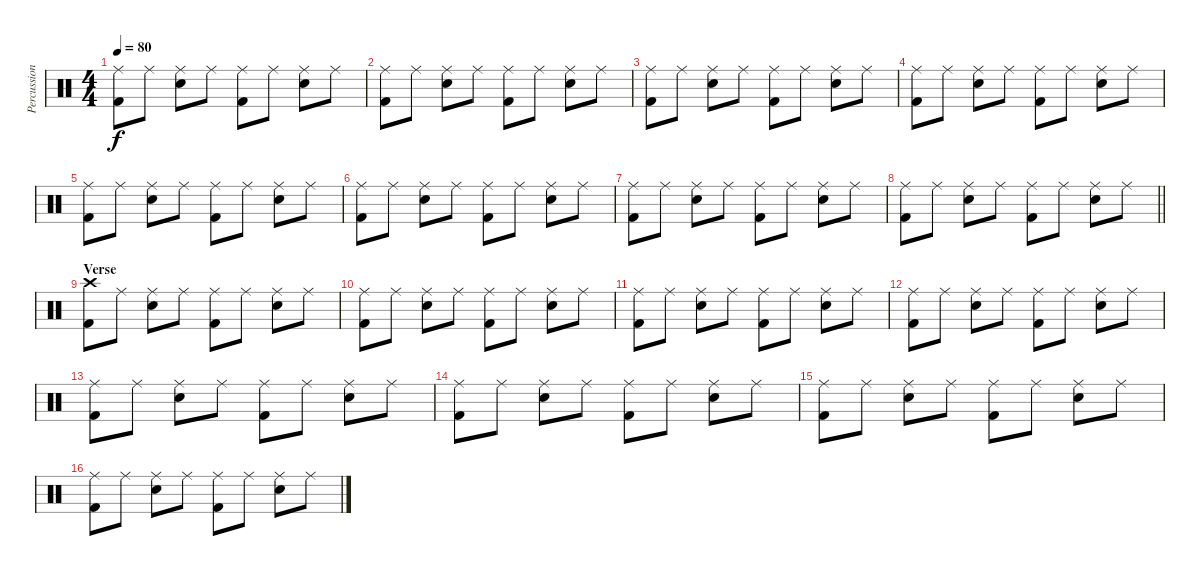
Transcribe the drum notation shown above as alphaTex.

\track ("Percussion" "Percussion") {instrument percussion}
\staff {score}
\articulation defaults
\ts (4 4)
\tempo 80
\clef neutral
\ks c
("Ride (middle)" "Kick (hit) 2").8{dy f} "Ride (middle)".8 ("Ride (middle)" "Electric Snare (hit)").8 "Ride (middle)".8 ("Ride (middle)" "Kick (hit) 2").8 "Ride (middle)".8 ("Ride (middle)" "Electric Snare (hit)").8 "Ride (middle)".8 |
("Ride (middle)" "Kick (hit) 2").8 "Ride (middle)".8 ("Ride (middle)" "Electric Snare (hit)").8 "Ride (middle)".8 ("Ride (middle)" "Kick (hit) 2").8 "Ride (middle)".8 ("Ride (middle)" "Electric Snare (hit)").8 "Ride (middle)".8 |
("Ride (middle)" "Kick (hit) 2").8 "Ride (middle)".8 ("Ride (middle)" "Electric Snare (hit)").8 "Ride (middle)".8 ("Ride (middle)" "Kick (hit) 2").8 "Ride (middle)".8 ("Ride (middle)" "Electric Snare (hit)").8 "Ride (middle)".8 |
("Ride (middle)" "Kick (hit) 2").8 "Ride (middle)".8 ("Ride (middle)" "Electric Snare (hit)").8 "Ride (middle)".8 ("Ride (middle)" "Kick (hit) 2").8 "Ride (middle)".8 ("Ride (middle)" "Electric Snare (hit)").8 "Ride (middle)".8 |
("Ride (middle)" "Kick (hit) 2").8 "Ride (middle)".8 ("Ride (middle)" "Electric Snare (hit)").8 "Ride (middle)".8 ("Ride (middle)" "Kick (hit) 2").8 "Ride (middle)".8 ("Ride (middle)" "Electric Snare (hit)").8 "Ride (middle)".8 |
("Ride (middle)" "Kick (hit) 2").8 "Ride (middle)".8 ("Ride (middle)" "Electric Snare (hit)").8 "Ride (middle)".8 ("Ride (middle)" "Kick (hit) 2").8 "Ride (middle)".8 ("Ride (middle)" "Electric Snare (hit)").8 "Ride (middle)".8 |
("Ride (middle)" "Kick (hit) 2").8 "Ride (middle)".8 ("Ride (middle)" "Electric Snare (hit)").8 "Ride (middle)".8 ("Ride (middle)" "Kick (hit) 2").8 "Ride (middle)".8 ("Ride (middle)" "Electric Snare (hit)").8 "Ride (middle)".8 |
\barLineRight lightlight
("Ride (middle)" "Kick (hit) 2").8 "Ride (middle)".8 ("Ride (middle)" "Electric Snare (hit)").8 "Ride (middle)".8 ("Ride (middle)" "Kick (hit) 2").8 "Ride (middle)".8 ("Ride (middle)" "Electric Snare (hit)").8 "Ride (middle)".8 |
\section ("" "Verse")
("Crash high (hit)" "Kick (hit) 2").8 "Ride (middle)".8 ("Ride (middle)" "Electric Snare (hit)").8 "Ride (middle)".8 ("Ride (middle)" "Kick (hit) 2").8 "Ride (middle)".8 ("Ride (middle)" "Electric Snare (hit)").8 "Ride (middle)".8 |
("Ride (middle)" "Kick (hit) 2").8 "Ride (middle)".8 ("Ride (middle)" "Electric Snare (hit)").8 "Ride (middle)".8 ("Ride (middle)" "Kick (hit) 2").8 "Ride (middle)".8 ("Ride (middle)" "Electric Snare (hit)").8 "Ride (middle)".8 |
("Ride (middle)" "Kick (hit) 2").8 "Ride (middle)".8 ("Ride (middle)" "Electric Snare (hit)").8 "Ride (middle)".8 ("Ride (middle)" "Kick (hit) 2").8 "Ride (middle)".8 ("Ride (middle)" "Electric Snare (hit)").8 "Ride (middle)".8 |
("Ride (middle)" "Kick (hit) 2").8 "Ride (middle)".8 ("Ride (middle)" "Electric Snare (hit)").8 "Ride (middle)".8 ("Ride (middle)" "Kick (hit) 2").8 "Ride (middle)".8 ("Ride (middle)" "Electric Snare (hit)").8 "Ride (middle)".8 |
("Ride (middle)" "Kick (hit) 2").8 "Ride (middle)".8 ("Ride (middle)" "Electric Snare (hit)").8 "Ride (middle)".8 ("Ride (middle)" "Kick (hit) 2").8 "Ride (middle)".8 ("Ride (middle)" "Electric Snare (hit)").8 "Ride (middle)".8 |
("Ride (middle)" "Kick (hit) 2").8 "Ride (middle)".8 ("Ride (middle)" "Electric Snare (hit)").8 "Ride (middle)".8 ("Ride (middle)" "Kick (hit) 2").8 "Ride (middle)".8 ("Ride (middle)" "Electric Snare (hit)").8 "Ride (middle)".8 |
("Ride (middle)" "Kick (hit) 2").8 "Ride (middle)".8 ("Ride (middle)" "Electric Snare (hit)").8 "Ride (middle)".8 ("Ride (middle)" "Kick (hit) 2").8 "Ride (middle)".8 ("Ride (middle)" "Electric Snare (hit)").8 "Ride (middle)".8 |
("Ride (middle)" "Kick (hit) 2").8 "Ride (middle)".8 ("Ride (middle)" "Electric Snare (hit)").8 "Ride (middle)".8 ("Ride (middle)" "Kick (hit) 2").8 "Ride (middle)".8 ("Ride (middle)" "Electric Snare (hit)").8 "Ride (middle)".8
